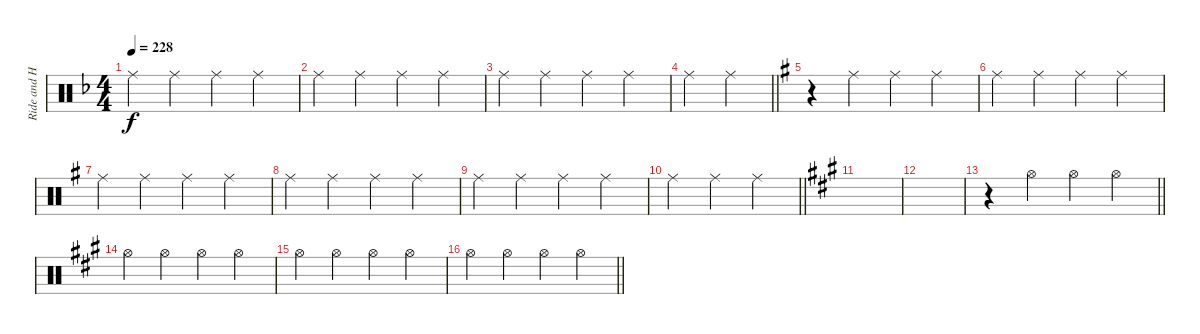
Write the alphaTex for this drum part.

\track ("Ride and Hi Hat" "Ride and H") {instrument percussion}
\staff {score}
\articulation defaults
\ts (4 4)
\tempo 228
\clef neutral
\ks f "Ride (middle)".4{dy f} "Ride (middle)".4 "Ride (middle)".4 "Ride (middle)".4
|
"Ride (middle)".4 "Ride (middle)".4 "Ride (middle)".4 "Ride (middle)".4 |
"Ride (middle)".4 "Ride (middle)".4 "Ride (middle)".4 "Ride (middle)".4 |
\barLineRight lightlight "Ride (middle)".4 "Ride (middle)".4
|
\ks g
r.4 "Ride (middle)".4 "Ride (middle)".4 "Ride (middle)".4 |
"Ride (middle)".4 "Ride (middle)".4 "Ride (middle)".4 "Ride (middle)".4 |
"Ride (middle)".4 "Ride (middle)".4 "Ride (middle)".4 "Ride (middle)".4 |
"Ride (middle)".4 "Ride (middle)".4 "Ride (middle)".4 "Ride (middle)".4 |
"Ride (middle)".4 "Ride (middle)".4 "Ride (middle)".4 "Ride (middle)".4 |
\barLineRight lightlight "Ride (middle)".4 "Ride (middle)".4 "Ride (middle)".4
|
\ks a
|
|
\barLineRight lightlight
r.4 "Hi-Hat (open)".4 "Hi-Hat (open)".4 "Hi-Hat (open)".4 |
"Hi-Hat (open)".4 "Hi-Hat (open)".4 "Hi-Hat (open)".4 "Hi-Hat (open)".4 |
"Hi-Hat (open)".4 "Hi-Hat (open)".4 "Hi-Hat (open)".4 "Hi-Hat (open)".4 |
\barLineRight lightlight "Hi-Hat (open)".4 "Hi-Hat (open)".4 "Hi-Hat (open)".4 "Hi-Hat (open)".4
